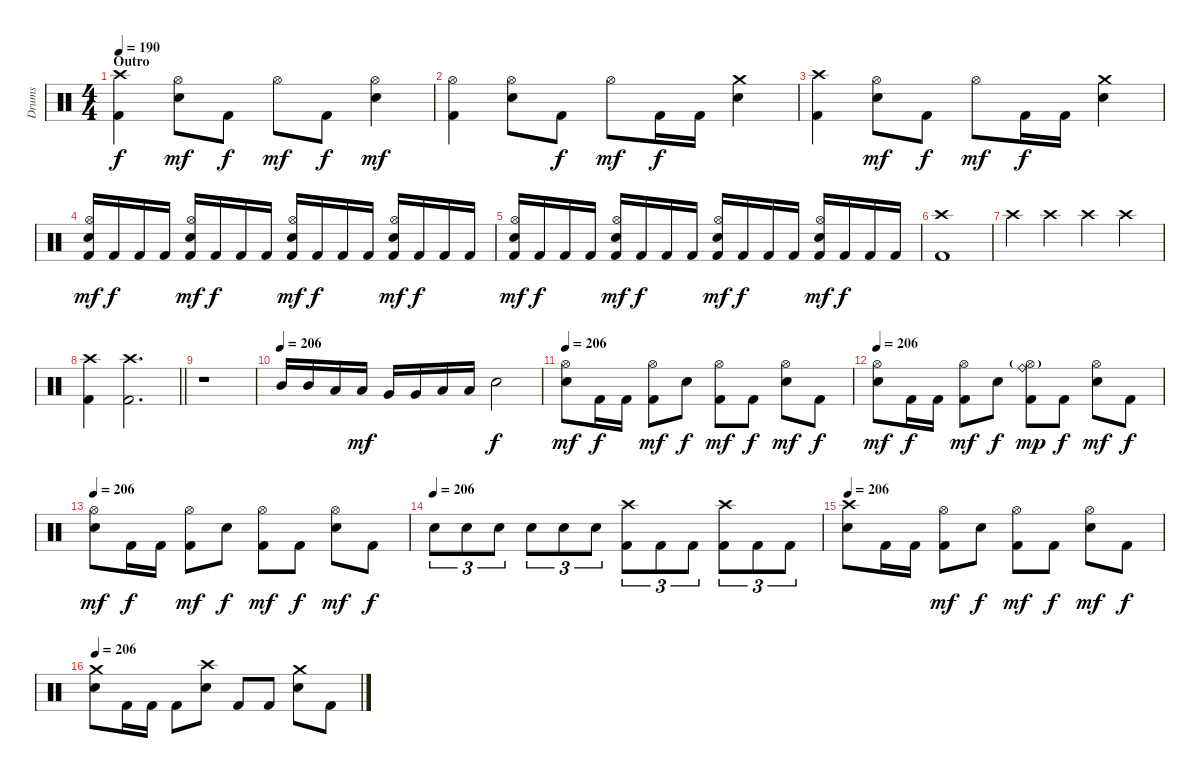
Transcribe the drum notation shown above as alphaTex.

\track ("Drums" "Drums") {instrument percussion}
\staff {score}
\articulation defaults
\ts (4 4)
\section ("" "Outro")
\tempo 190
\clef neutral
\ks c
("Crash high (hit)" "Kick (hit) 2").4{dy f} ("Hi-Hat (open)" "Electric Snare (hit)").8{dy mf} "Kick (hit) 2".8{dy f} "Hi-Hat (open)".8{dy mf} "Kick (hit) 2".8{dy f} ("Hi-Hat (open)" "Electric Snare (hit)").4{dy mf} |
("Hi-Hat (open)" "Kick (hit) 2").4 ("Hi-Hat (open)" "Electric Snare (hit)").8 "Kick (hit) 2".8{dy f} "Hi-Hat (open)".8{dy mf} "Kick (hit) 2".16{dy f} "Kick (hit) 2".16 ("Crash medium (hit)" "Electric Snare (hit)").4 |
("Crash high (hit)" "Kick (hit) 2").4 ("Hi-Hat (open)" "Electric Snare (hit)").8{dy mf} "Kick (hit) 2".8{dy f} "Hi-Hat (open)".8{dy mf} "Kick (hit) 2".16{dy f} "Kick (hit) 2".16 ("Crash medium (hit)" "Electric Snare (hit)").4 |
("Hi-Hat (open)" "Electric Snare (hit)" "Kick (hit) 2").16{dy mf} "Kick (hit) 2".16{dy f} "Kick (hit) 2".16 "Kick (hit) 2".16 ("Hi-Hat (open)" "Electric Snare (hit)" "Kick (hit) 2").16{dy mf} "Kick (hit) 2".16{dy f} "Kick (hit) 2".16 "Kick (hit) 2".16 ("Hi-Hat (open)" "Electric Snare (hit)" "Kick (hit) 2").16{dy mf} "Kick (hit) 2".16{dy f} "Kick (hit) 2".16 "Kick (hit) 2".16 ("Hi-Hat (open)" "Electric Snare (hit)" "Kick (hit) 2").16{dy mf} "Kick (hit) 2".16{dy f} "Kick (hit) 2".16 "Kick (hit) 2".16 |
("Hi-Hat (open)" "Electric Snare (hit)" "Kick (hit) 2").16{dy mf} "Kick (hit) 2".16{dy f} "Kick (hit) 2".16 "Kick (hit) 2".16 ("Hi-Hat (open)" "Electric Snare (hit)" "Kick (hit) 2").16{dy mf} "Kick (hit) 2".16{dy f} "Kick (hit) 2".16 "Kick (hit) 2".16 ("Hi-Hat (open)" "Electric Snare (hit)" "Kick (hit) 2").16{dy mf} "Kick (hit) 2".16{dy f} "Kick (hit) 2".16 "Kick (hit) 2".16 ("Hi-Hat (open)" "Electric Snare (hit)" "Kick (hit) 2").16{dy mf} "Kick (hit) 2".16{dy f} "Kick (hit) 2".16 "Kick (hit) 2".16 |
("Crash high (hit)" "Kick (hit) 2").1 |
"Crash high (hit)".4 "Crash high (hit)".4 "Crash high (hit)".4 "Crash high (hit)".4 |
\barLineRight lightlight
("Crash high (hit)" "Kick (hit) 2").4 ("Crash high (hit)" "Kick (hit) 2").2{d} |
r.1 |
\tempo (206)
"Mid Tom (hit)".16 "Mid Tom (hit)".16 "Low Tom (hit)".16 "Low Tom (hit)".16{dy mf} "Very Low Tom (hit)".16 "Very Low Tom (hit)".16 "Low Floor Tom (hit)".16 "Low Floor Tom (hit)".16 "Electric Snare (hit)".2{dy f} |
\tempo 206
("Hi-Hat (open)" "Electric Snare (hit)").8{dy mf} "Kick (hit) 2".16{dy f} "Kick (hit) 2".16 ("Hi-Hat (open)" "Kick (hit) 2").8{dy mf} "Electric Snare (hit)".8{dy f} ("Hi-Hat (open)" "Kick (hit) 2").8{dy mf} "Kick (hit) 2".8{dy f} ("Hi-Hat (open)" "Electric Snare (hit)").8{dy mf} "Kick (hit) 2".8{dy f} |
\tempo 206
("Hi-Hat (open)" "Electric Snare (hit)").8{dy mf} "Kick (hit) 2".16{dy f} "Kick (hit) 2".16 ("Hi-Hat (open)" "Kick (hit) 2").8{dy mf} "Electric Snare (hit)".8{dy f} ("Ride (bell)" "Hi-Hat (open)"{g} "Kick (hit) 2").8{dy mp} "Kick (hit) 2".8{dy f} ("Hi-Hat (open)" "Electric Snare (hit)").8{dy mf} "Kick (hit) 2".8{dy f} |
\tempo 206
("Hi-Hat (open)" "Electric Snare (hit)").8{dy mf} "Kick (hit) 2".16{dy f} "Kick (hit) 2".16 ("Hi-Hat (open)" "Kick (hit) 2").8{dy mf} "Electric Snare (hit)".8{dy f} ("Hi-Hat (open)" "Kick (hit) 2").8{dy mf} "Kick (hit) 2".8{dy f} ("Hi-Hat (open)" "Electric Snare (hit)").8{dy mf} "Kick (hit) 2".8{dy f} |
\tempo (206)
"Electric Snare (hit)".8{tu (3 2)} "Electric Snare (hit)".8{tu (3 2)} "Electric Snare (hit)".8{tu (3 2)} "Electric Snare (hit)".8{tu (3 2)} "Electric Snare (hit)".8{tu (3 2)} "Electric Snare (hit)".8{tu (3 2)} ("Crash high (hit)" "Kick (hit) 2").8{tu (3 2)} "Kick (hit) 2".8{tu (3 2)} "Kick (hit) 2".8{tu (3 2)} ("Crash high (hit)" "Kick (hit) 2").8{tu (3 2)} "Kick (hit) 2".8{tu (3 2)} "Kick (hit) 2".8{tu (3 2)} |
\tempo 206
("Crash high (hit)" "Electric Snare (hit)").8 "Kick (hit) 2".16 "Kick (hit) 2".16 ("Hi-Hat (open)" "Kick (hit) 2").8{dy mf} "Electric Snare (hit)".8{dy f} ("Hi-Hat (open)" "Kick (hit) 2").8{dy mf} "Kick (hit) 2".8{dy f} ("Hi-Hat (open)" "Electric Snare (hit)").8{dy mf} "Kick (hit) 2".8{dy f} |
\tempo 206
("Crash medium (hit)" "Electric Snare (hit)").8 "Kick (hit) 2".16 "Kick (hit) 2".16 "Kick (hit) 2".8 ("Crash high (hit)" "Electric Snare (hit)").8 "Kick (hit) 2".8 "Kick (hit) 2".8 ("Crash medium (hit)" "Electric Snare (hit)").8 "Kick (hit) 2".8
